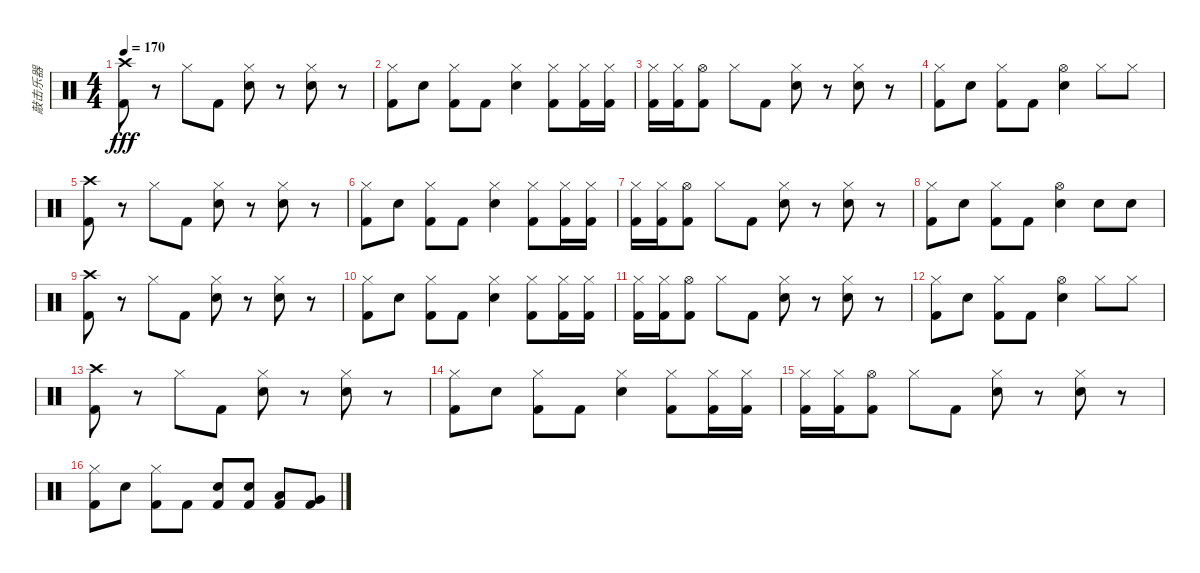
\track ("敲击乐器" "敲击乐器") {instrument percussion}
\staff {score}
\articulation defaults
\ts (4 4)
\tempo 170
\clef neutral
\ks c
("Crash high (hit)" "Kick (hit) 2").8{dy fff} r.8 "Hi-Hat (closed)".8 "Kick (hit) 2".8 ("Hi-Hat (closed)" "Electric Snare (hit)").8 r.8 ("Hi-Hat (closed)" "Electric Snare (hit)").8 r.8 |
("Hi-Hat (closed)" "Kick (hit) 2").8 "Electric Snare (hit)".8 ("Hi-Hat (closed)" "Kick (hit) 2").8 "Kick (hit) 2".8 ("Hi-Hat (closed)" "Electric Snare (hit)").4 ("Hi-Hat (closed)" "Kick (hit) 2").8 ("Hi-Hat (closed)" "Kick (hit) 2").16 ("Hi-Hat (closed)" "Kick (hit) 2").16 |
("Hi-Hat (closed)" "Kick (hit) 2").16 ("Hi-Hat (closed)" "Kick (hit) 2").16 ("Hi-Hat (open)" "Kick (hit) 2").8 "Hi-Hat (closed)".8 "Kick (hit) 2".8 ("Hi-Hat (closed)" "Electric Snare (hit)").8 r.8 ("Hi-Hat (closed)" "Electric Snare (hit)").8 r.8 |
("Hi-Hat (closed)" "Kick (hit) 2").8 "Electric Snare (hit)".8 ("Hi-Hat (closed)" "Kick (hit) 2").8 "Kick (hit) 2".8 ("Hi-Hat (open)" "Electric Snare (hit)").4 "Hi-Hat (closed)".8 "Hi-Hat (closed)".8 |
("Crash high (hit)" "Kick (hit) 2").8 r.8 "Hi-Hat (closed)".8 "Kick (hit) 2".8 ("Hi-Hat (closed)" "Electric Snare (hit)").8 r.8 ("Hi-Hat (closed)" "Electric Snare (hit)").8 r.8 |
("Hi-Hat (closed)" "Kick (hit) 2").8 "Electric Snare (hit)".8 ("Hi-Hat (closed)" "Kick (hit) 2").8 "Kick (hit) 2".8 ("Hi-Hat (closed)" "Electric Snare (hit)").4 ("Hi-Hat (closed)" "Kick (hit) 2").8 ("Hi-Hat (closed)" "Kick (hit) 2").16 ("Hi-Hat (closed)" "Kick (hit) 2").16 |
("Hi-Hat (closed)" "Kick (hit) 2").16 ("Hi-Hat (closed)" "Kick (hit) 2").16 ("Hi-Hat (open)" "Kick (hit) 2").8 "Hi-Hat (closed)".8 "Kick (hit) 2".8 ("Hi-Hat (closed)" "Electric Snare (hit)").8 r.8 ("Hi-Hat (closed)" "Electric Snare (hit)").8 r.8 |
("Hi-Hat (closed)" "Kick (hit) 2").8 "Electric Snare (hit)".8 ("Hi-Hat (closed)" "Kick (hit) 2").8 "Kick (hit) 2".8 ("Hi-Hat (open)" "Electric Snare (hit)").4 "Electric Snare (hit)".8 "Electric Snare (hit)".8 |
("Crash high (hit)" "Kick (hit) 2").8 r.8 "Hi-Hat (closed)".8 "Kick (hit) 2".8 ("Hi-Hat (closed)" "Electric Snare (hit)").8 r.8 ("Hi-Hat (closed)" "Electric Snare (hit)").8 r.8 |
("Hi-Hat (closed)" "Kick (hit) 2").8 "Electric Snare (hit)".8 ("Hi-Hat (closed)" "Kick (hit) 2").8 "Kick (hit) 2".8 ("Hi-Hat (closed)" "Electric Snare (hit)").4 ("Hi-Hat (closed)" "Kick (hit) 2").8 ("Hi-Hat (closed)" "Kick (hit) 2").16 ("Hi-Hat (closed)" "Kick (hit) 2").16 |
("Hi-Hat (closed)" "Kick (hit) 2").16 ("Hi-Hat (closed)" "Kick (hit) 2").16 ("Hi-Hat (open)" "Kick (hit) 2").8 "Hi-Hat (closed)".8 "Kick (hit) 2".8 ("Hi-Hat (closed)" "Electric Snare (hit)").8 r.8 ("Hi-Hat (closed)" "Electric Snare (hit)").8 r.8 |
("Hi-Hat (closed)" "Kick (hit) 2").8 "Electric Snare (hit)".8 ("Hi-Hat (closed)" "Kick (hit) 2").8 "Kick (hit) 2".8 ("Hi-Hat (open)" "Electric Snare (hit)").4 "Hi-Hat (closed)".8 "Hi-Hat (closed)".8 |
("Crash high (hit)" "Kick (hit) 2").8 r.8 "Hi-Hat (closed)".8 "Kick (hit) 2".8 ("Hi-Hat (closed)" "Electric Snare (hit)").8 r.8 ("Hi-Hat (closed)" "Electric Snare (hit)").8 r.8 |
("Hi-Hat (closed)" "Kick (hit) 2").8 "Electric Snare (hit)".8 ("Hi-Hat (closed)" "Kick (hit) 2").8 "Kick (hit) 2".8 ("Hi-Hat (closed)" "Electric Snare (hit)").4 ("Hi-Hat (closed)" "Kick (hit) 2").8 ("Hi-Hat (closed)" "Kick (hit) 2").16 ("Hi-Hat (closed)" "Kick (hit) 2").16 |
("Hi-Hat (closed)" "Kick (hit) 2").16 ("Hi-Hat (closed)" "Kick (hit) 2").16 ("Hi-Hat (open)" "Kick (hit) 2").8 "Hi-Hat (closed)".8 "Kick (hit) 2".8 ("Hi-Hat (closed)" "Electric Snare (hit)").8 r.8 ("Hi-Hat (closed)" "Electric Snare (hit)").8 r.8 |
("Hi-Hat (closed)" "Kick (hit) 2").8 "Electric Snare (hit)".8 ("Hi-Hat (closed)" "Kick (hit) 2").8 "Kick (hit) 2".8 ("Electric Snare (hit)" "Kick (hit) 2").8 ("Electric Snare (hit)" "Kick (hit) 2").8 ("Low Tom (hit)" "Kick (hit) 2").8 ("Very Low Tom (hit)" "Kick (hit) 2").8
